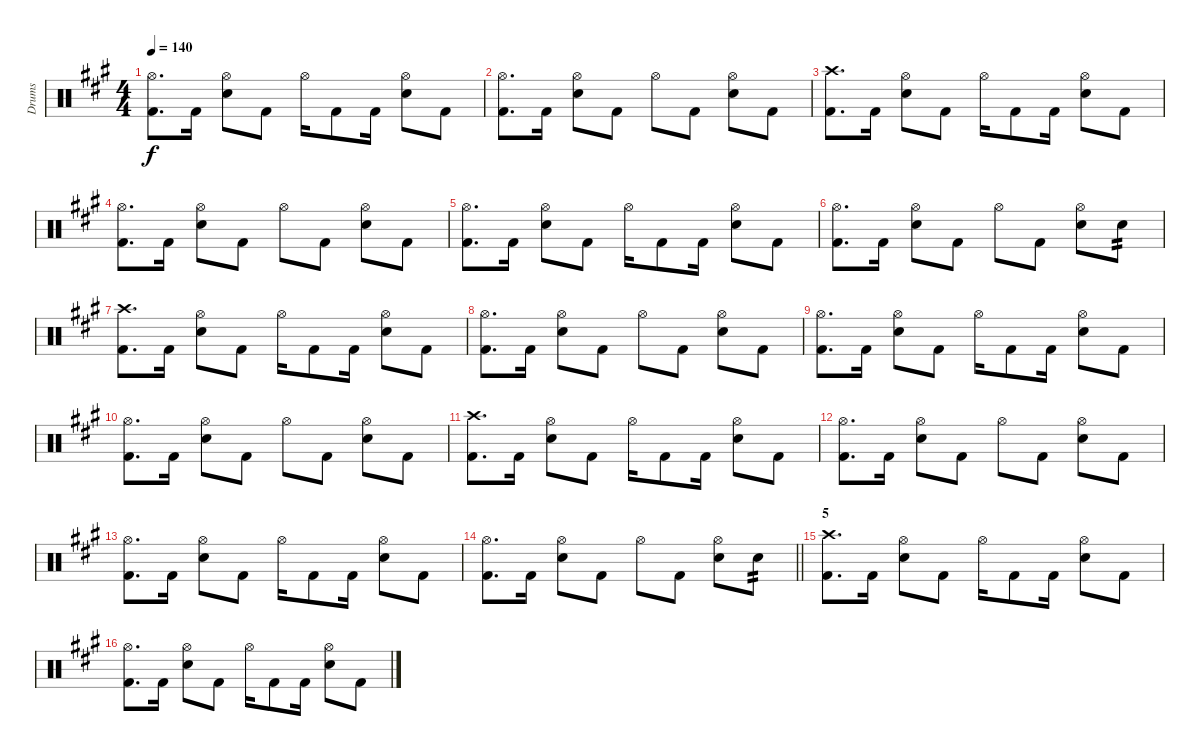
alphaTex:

\track ("Drums" "Drums") {instrument percussion}
\staff {score}
\articulation defaults
\ts (4 4)
\tempo 140
\clef neutral
\ks a
("Hi-Hat (open)" "Kick (hit) 2").8{d dy f} "Kick (hit) 2".16 ("Hi-Hat (open)" "Electric Snare (hit)").8 "Kick (hit) 2".8 "Hi-Hat (open)".16 "Kick (hit) 2".8 "Kick (hit) 2".16 ("Hi-Hat (open)" "Electric Snare (hit)").8 "Kick (hit) 2".8 |
("Hi-Hat (open)" "Kick (hit) 2").8{d} "Kick (hit) 2".16 ("Hi-Hat (open)" "Electric Snare (hit)").8 "Kick (hit) 2".8 "Hi-Hat (open)".8 "Kick (hit) 2".8 ("Hi-Hat (open)" "Electric Snare (hit)").8 "Kick (hit) 2".8 |
("Crash high (hit)" "Kick (hit) 2").8{d} "Kick (hit) 2".16 ("Hi-Hat (open)" "Electric Snare (hit)").8 "Kick (hit) 2".8 "Hi-Hat (open)".16 "Kick (hit) 2".8 "Kick (hit) 2".16 ("Hi-Hat (open)" "Electric Snare (hit)").8 "Kick (hit) 2".8 |
("Hi-Hat (open)" "Kick (hit) 2").8{d} "Kick (hit) 2".16 ("Hi-Hat (open)" "Electric Snare (hit)").8 "Kick (hit) 2".8 "Hi-Hat (open)".8 "Kick (hit) 2".8 ("Hi-Hat (open)" "Electric Snare (hit)").8 "Kick (hit) 2".8 |
("Hi-Hat (open)" "Kick (hit) 2").8{d} "Kick (hit) 2".16 ("Hi-Hat (open)" "Electric Snare (hit)").8 "Kick (hit) 2".8 "Hi-Hat (open)".16 "Kick (hit) 2".8 "Kick (hit) 2".16 ("Hi-Hat (open)" "Electric Snare (hit)").8 "Kick (hit) 2".8 |
("Hi-Hat (open)" "Kick (hit) 2").8{d} "Kick (hit) 2".16 ("Hi-Hat (open)" "Electric Snare (hit)").8 "Kick (hit) 2".8 "Hi-Hat (open)".8 "Kick (hit) 2".8 ("Hi-Hat (open)" "Electric Snare (hit)").8 "Electric Snare (hit)".8{tp 2} |
("Crash high (hit)" "Kick (hit) 2").8{d} "Kick (hit) 2".16 ("Hi-Hat (open)" "Electric Snare (hit)").8 "Kick (hit) 2".8 "Hi-Hat (open)".16 "Kick (hit) 2".8 "Kick (hit) 2".16 ("Hi-Hat (open)" "Electric Snare (hit)").8 "Kick (hit) 2".8 |
("Hi-Hat (open)" "Kick (hit) 2").8{d} "Kick (hit) 2".16 ("Hi-Hat (open)" "Electric Snare (hit)").8 "Kick (hit) 2".8 "Hi-Hat (open)".8 "Kick (hit) 2".8 ("Hi-Hat (open)" "Electric Snare (hit)").8 "Kick (hit) 2".8 |
("Hi-Hat (open)" "Kick (hit) 2").8{d} "Kick (hit) 2".16 ("Hi-Hat (open)" "Electric Snare (hit)").8 "Kick (hit) 2".8 "Hi-Hat (open)".16 "Kick (hit) 2".8 "Kick (hit) 2".16 ("Hi-Hat (open)" "Electric Snare (hit)").8 "Kick (hit) 2".8 |
("Hi-Hat (open)" "Kick (hit) 2").8{d} "Kick (hit) 2".16 ("Hi-Hat (open)" "Electric Snare (hit)").8 "Kick (hit) 2".8 "Hi-Hat (open)".8 "Kick (hit) 2".8 ("Hi-Hat (open)" "Electric Snare (hit)").8 "Kick (hit) 2".8 |
("Crash high (hit)" "Kick (hit) 2").8{d} "Kick (hit) 2".16 ("Hi-Hat (open)" "Electric Snare (hit)").8 "Kick (hit) 2".8 "Hi-Hat (open)".16 "Kick (hit) 2".8 "Kick (hit) 2".16 ("Hi-Hat (open)" "Electric Snare (hit)").8 "Kick (hit) 2".8 |
("Hi-Hat (open)" "Kick (hit) 2").8{d} "Kick (hit) 2".16 ("Hi-Hat (open)" "Electric Snare (hit)").8 "Kick (hit) 2".8 "Hi-Hat (open)".8 "Kick (hit) 2".8 ("Hi-Hat (open)" "Electric Snare (hit)").8 "Kick (hit) 2".8 |
("Hi-Hat (open)" "Kick (hit) 2").8{d} "Kick (hit) 2".16 ("Hi-Hat (open)" "Electric Snare (hit)").8 "Kick (hit) 2".8 "Hi-Hat (open)".16 "Kick (hit) 2".8 "Kick (hit) 2".16 ("Hi-Hat (open)" "Electric Snare (hit)").8 "Kick (hit) 2".8 |
\barLineRight lightlight
("Hi-Hat (open)" "Kick (hit) 2").8{d} "Kick (hit) 2".16 ("Hi-Hat (open)" "Electric Snare (hit)").8 "Kick (hit) 2".8 "Hi-Hat (open)".8 "Kick (hit) 2".8 ("Hi-Hat (open)" "Electric Snare (hit)").8 "Electric Snare (hit)".8{tp 2} |
\section ("" "5")
("Crash high (hit)" "Kick (hit) 2").8{d} "Kick (hit) 2".16 ("Hi-Hat (open)" "Electric Snare (hit)").8 "Kick (hit) 2".8 "Hi-Hat (open)".16 "Kick (hit) 2".8 "Kick (hit) 2".16 ("Hi-Hat (open)" "Electric Snare (hit)").8 "Kick (hit) 2".8 |
("Hi-Hat (open)" "Kick (hit) 2").8{d} "Kick (hit) 2".16 ("Hi-Hat (open)" "Electric Snare (hit)").8 "Kick (hit) 2".8 "Hi-Hat (open)".16 "Kick (hit) 2".8 "Kick (hit) 2".16 ("Hi-Hat (open)" "Electric Snare (hit)").8 "Kick (hit) 2".8
